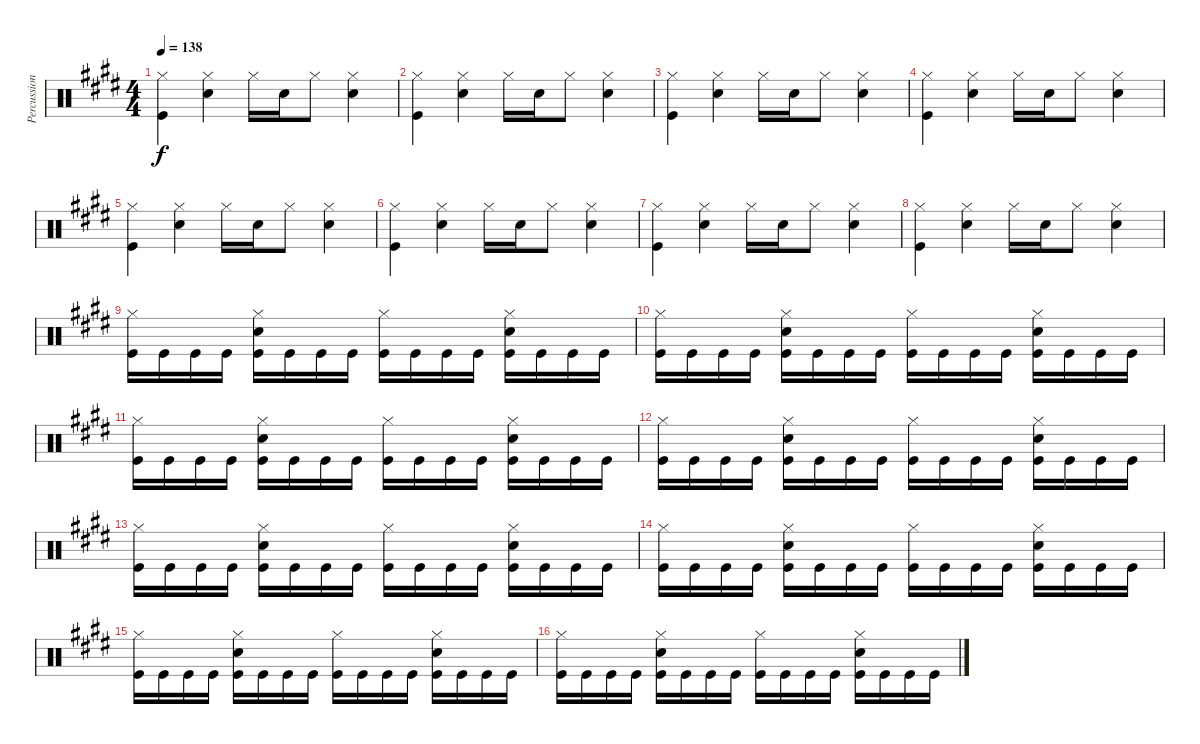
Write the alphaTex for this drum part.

\track ("Percussion" "Percussion") {instrument percussion}
\staff {score}
\articulation defaults
\ts (4 4)
\tempo 138
\clef neutral
\ks c#minor
("Hi-Hat (closed)" "Kick (hit)").4{dy f} ("Hi-Hat (closed)" "Snare (hit) 2").4 "Hi-Hat (closed)".16 "Snare (hit) 2".16 "Hi-Hat (closed)".8 ("Hi-Hat (closed)" "Snare (hit) 2").4 |
("Hi-Hat (closed)" "Kick (hit)").4 ("Hi-Hat (closed)" "Snare (hit) 2").4 "Hi-Hat (closed)".16 "Snare (hit) 2".16 "Hi-Hat (closed)".8 ("Hi-Hat (closed)" "Snare (hit) 2").4 |
("Hi-Hat (closed)" "Kick (hit)").4 ("Hi-Hat (closed)" "Snare (hit) 2").4 "Hi-Hat (closed)".16 "Snare (hit) 2".16 "Hi-Hat (closed)".8 ("Hi-Hat (closed)" "Snare (hit) 2").4 |
("Hi-Hat (closed)" "Kick (hit)").4 ("Hi-Hat (closed)" "Snare (hit) 2").4 "Hi-Hat (closed)".16 "Snare (hit) 2".16 "Hi-Hat (closed)".8 ("Hi-Hat (closed)" "Snare (hit) 2").4 |
("Hi-Hat (closed)" "Kick (hit)").4 ("Hi-Hat (closed)" "Snare (hit) 2").4 "Hi-Hat (closed)".16 "Snare (hit) 2".16 "Hi-Hat (closed)".8 ("Hi-Hat (closed)" "Snare (hit) 2").4 |
("Hi-Hat (closed)" "Kick (hit)").4 ("Hi-Hat (closed)" "Snare (hit) 2").4 "Hi-Hat (closed)".16 "Snare (hit) 2".16 "Hi-Hat (closed)".8 ("Hi-Hat (closed)" "Snare (hit) 2").4 |
("Hi-Hat (closed)" "Kick (hit)").4 ("Hi-Hat (closed)" "Snare (hit) 2").4 "Hi-Hat (closed)".16 "Snare (hit) 2".16 "Hi-Hat (closed)".8 ("Hi-Hat (closed)" "Snare (hit) 2").4 |
("Hi-Hat (closed)" "Kick (hit)").4 ("Hi-Hat (closed)" "Snare (hit) 2").4 "Hi-Hat (closed)".16 "Snare (hit) 2".16 "Hi-Hat (closed)".8 ("Hi-Hat (closed)" "Snare (hit) 2").4 |
("Hi-Hat (closed)" "Kick (hit)").16 "Kick (hit)".16 "Kick (hit)".16 "Kick (hit)".16 ("Hi-Hat (closed)" "Snare (hit) 2" "Kick (hit)").16 "Kick (hit)".16 "Kick (hit)".16 "Kick (hit)".16 ("Hi-Hat (closed)" "Kick (hit)").16 "Kick (hit)".16 "Kick (hit)".16 "Kick (hit)".16 ("Hi-Hat (closed)" "Snare (hit) 2" "Kick (hit)").16 "Kick (hit)".16 "Kick (hit)".16 "Kick (hit)".16 |
("Hi-Hat (closed)" "Kick (hit)").16 "Kick (hit)".16 "Kick (hit)".16 "Kick (hit)".16 ("Hi-Hat (closed)" "Snare (hit) 2" "Kick (hit)").16 "Kick (hit)".16 "Kick (hit)".16 "Kick (hit)".16 ("Hi-Hat (closed)" "Kick (hit)").16 "Kick (hit)".16 "Kick (hit)".16 "Kick (hit)".16 ("Hi-Hat (closed)" "Snare (hit) 2" "Kick (hit)").16 "Kick (hit)".16 "Kick (hit)".16 "Kick (hit)".16 |
("Hi-Hat (closed)" "Kick (hit)").16 "Kick (hit)".16 "Kick (hit)".16 "Kick (hit)".16 ("Hi-Hat (closed)" "Snare (hit) 2" "Kick (hit)").16 "Kick (hit)".16 "Kick (hit)".16 "Kick (hit)".16 ("Hi-Hat (closed)" "Kick (hit)").16 "Kick (hit)".16 "Kick (hit)".16 "Kick (hit)".16 ("Hi-Hat (closed)" "Snare (hit) 2" "Kick (hit)").16 "Kick (hit)".16 "Kick (hit)".16 "Kick (hit)".16 |
("Hi-Hat (closed)" "Kick (hit)").16 "Kick (hit)".16 "Kick (hit)".16 "Kick (hit)".16 ("Hi-Hat (closed)" "Snare (hit) 2" "Kick (hit)").16 "Kick (hit)".16 "Kick (hit)".16 "Kick (hit)".16 ("Hi-Hat (closed)" "Kick (hit)").16 "Kick (hit)".16 "Kick (hit)".16 "Kick (hit)".16 ("Hi-Hat (closed)" "Snare (hit) 2" "Kick (hit)").16 "Kick (hit)".16 "Kick (hit)".16 "Kick (hit)".16 |
("Hi-Hat (closed)" "Kick (hit)").16 "Kick (hit)".16 "Kick (hit)".16 "Kick (hit)".16 ("Hi-Hat (closed)" "Snare (hit) 2" "Kick (hit)").16 "Kick (hit)".16 "Kick (hit)".16 "Kick (hit)".16 ("Hi-Hat (closed)" "Kick (hit)").16 "Kick (hit)".16 "Kick (hit)".16 "Kick (hit)".16 ("Hi-Hat (closed)" "Snare (hit) 2" "Kick (hit)").16 "Kick (hit)".16 "Kick (hit)".16 "Kick (hit)".16 |
("Hi-Hat (closed)" "Kick (hit)").16 "Kick (hit)".16 "Kick (hit)".16 "Kick (hit)".16 ("Hi-Hat (closed)" "Snare (hit) 2" "Kick (hit)").16 "Kick (hit)".16 "Kick (hit)".16 "Kick (hit)".16 ("Hi-Hat (closed)" "Kick (hit)").16 "Kick (hit)".16 "Kick (hit)".16 "Kick (hit)".16 ("Hi-Hat (closed)" "Snare (hit) 2" "Kick (hit)").16 "Kick (hit)".16 "Kick (hit)".16 "Kick (hit)".16 |
("Hi-Hat (closed)" "Kick (hit)").16 "Kick (hit)".16 "Kick (hit)".16 "Kick (hit)".16 ("Hi-Hat (closed)" "Snare (hit) 2" "Kick (hit)").16 "Kick (hit)".16 "Kick (hit)".16 "Kick (hit)".16 ("Hi-Hat (closed)" "Kick (hit)").16 "Kick (hit)".16 "Kick (hit)".16 "Kick (hit)".16 ("Hi-Hat (closed)" "Snare (hit) 2" "Kick (hit)").16 "Kick (hit)".16 "Kick (hit)".16 "Kick (hit)".16 |
("Hi-Hat (closed)" "Kick (hit)").16 "Kick (hit)".16 "Kick (hit)".16 "Kick (hit)".16 ("Hi-Hat (closed)" "Snare (hit) 2" "Kick (hit)").16 "Kick (hit)".16 "Kick (hit)".16 "Kick (hit)".16 ("Hi-Hat (closed)" "Kick (hit)").16 "Kick (hit)".16 "Kick (hit)".16 "Kick (hit)".16 ("Hi-Hat (closed)" "Snare (hit) 2" "Kick (hit)").16 "Kick (hit)".16 "Kick (hit)".16 "Kick (hit)".16
